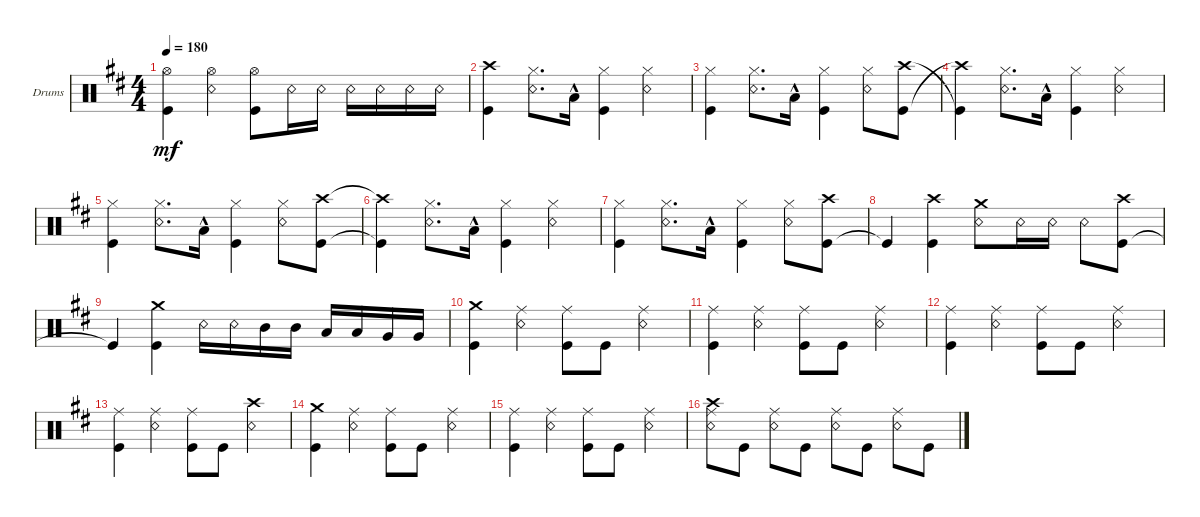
\defaultSystemsLayout 4
\bracketExtendMode groupsimilarinstruments
\firstSystemTrackNameOrientation horizontal
\otherSystemsTrackNameOrientation horizontal
\track ("Drumkit" "Drums") {instrument percussion}
\staff {score}
\articulation defaults
\ts (4 4)
\tempo 180
\clef neutral
\ks bminor
("Kick (hit)" "Hi-Hat (open)").4{dy mf} ("Hi-Hat (open)" "Snare (rim shot)").4 ("Hi-Hat (open)" "Kick (hit)").8 "Snare (rim shot)".16 "Snare (rim shot)".16 "Snare (rim shot)".16 "Snare (rim shot)".16 "Snare (rim shot)".16 "Snare (rim shot)".16 |
("Kick (hit)" "Crash high (hit)").4 ("Hi-Hat (closed)" "Snare (rim shot)").8{d} "Low Tom (hit)"{hac}.16 ("Hi-Hat (closed)" "Kick (hit)").4 ("Hi-Hat (closed)" "Snare (rim shot)").4 |
("Kick (hit)" "Hi-Hat (closed)").4 ("Hi-Hat (closed)" "Snare (rim shot)").8{d} "Low Tom (hit)"{hac}.16 ("Hi-Hat (closed)" "Kick (hit)").4 ("Hi-Hat (closed)" "Snare (rim shot)").8 ("Crash high (hit)" "Kick (hit)").8 |
("Kick (hit)"{t} "Crash high (hit)"{t}).4 ("Hi-Hat (closed)" "Snare (rim shot)").8{d} "Low Tom (hit)"{hac}.16 ("Hi-Hat (closed)" "Kick (hit)").4 ("Hi-Hat (closed)" "Snare (rim shot)").4 |
("Kick (hit)" "Hi-Hat (closed)").4 ("Hi-Hat (closed)" "Snare (rim shot)").8{d} "Low Tom (hit)"{hac}.16 ("Hi-Hat (closed)" "Kick (hit)").4 ("Hi-Hat (closed)" "Snare (rim shot)").8 ("Kick (hit)" "Crash high (hit)").8 |
("Kick (hit)"{t} "Crash high (hit)"{t}).4 ("Hi-Hat (closed)" "Snare (rim shot)").8{d} "Low Tom (hit)"{hac}.16 ("Hi-Hat (closed)" "Kick (hit)").4 ("Hi-Hat (closed)" "Snare (rim shot)").4 |
("Kick (hit)" "Hi-Hat (closed)").4 ("Hi-Hat (closed)" "Snare (rim shot)").8{d} "Low Tom (hit)"{hac}.16 ("Hi-Hat (closed)" "Kick (hit)").4 ("Hi-Hat (closed)" "Snare (rim shot)").8 ("Kick (hit)" "Crash high (hit)").8 |
"Kick (hit)"{t}.4 ("Kick (hit)" "Crash high (hit)").4 ("Crash medium (hit)" "Snare (rim shot)").8 "Snare (rim shot)".16 "Snare (rim shot)".16 "Snare (rim shot)".8 ("Kick (hit)" "Crash high (hit)").8 |
"Kick (hit)"{t}.4 ("Kick (hit)" "Crash medium (hit)").4 "Snare (rim shot)".16 "Snare (rim shot)".16 "Mid Tom (hit)".16 "Mid Tom (hit)".16 "Low Tom (hit)".16 "Low Tom (hit)".16 "Very Low Tom (hit)".16 "Very Low Tom (hit)".16 |
("Kick (hit)" "Crash medium (hit)").4 ("Ride (middle)" "Snare (rim shot)").4 ("Ride (middle)" "Kick (hit)").8 "Kick (hit)".8 ("Ride (middle)" "Snare (rim shot)").4 |
("Kick (hit)" "Ride (middle)").4 ("Ride (middle)" "Snare (rim shot)").4 ("Ride (middle)" "Kick (hit)").8 "Kick (hit)".8 ("Ride (middle)" "Snare (rim shot)").4 |
("Kick (hit)" "Ride (middle)").4 ("Ride (middle)" "Snare (rim shot)").4 ("Ride (middle)" "Kick (hit)").8 "Kick (hit)".8 ("Ride (middle)" "Snare (rim shot)").4 |
("Kick (hit)" "Ride (middle)").4 ("Ride (middle)" "Snare (rim shot)").4 ("Ride (middle)" "Kick (hit)").8 "Kick (hit)".8 ("Snare (rim shot)" "Crash high (hit)").4 |
("Kick (hit)" "Crash medium (hit)").4 ("Ride (middle)" "Snare (rim shot)").4 ("Ride (middle)" "Kick (hit)").8 "Kick (hit)".8 ("Ride (middle)" "Snare (rim shot)").4 |
("Kick (hit)" "Ride (middle)").4 ("Ride (middle)" "Snare (rim shot)").4 ("Ride (middle)" "Kick (hit)").8 "Kick (hit)".8 ("Ride (middle)" "Snare (rim shot)").4 |
("Snare (rim shot)" "Ride (middle)" "Crash high (hit)").8 "Kick (hit)".8 ("Snare (rim shot)" "Ride (middle)").8 "Kick (hit)".8 ("Snare (rim shot)" "Ride (middle)").8 "Kick (hit)".8 ("Snare (rim shot)" "Ride (middle)").8 "Kick (hit)".8
